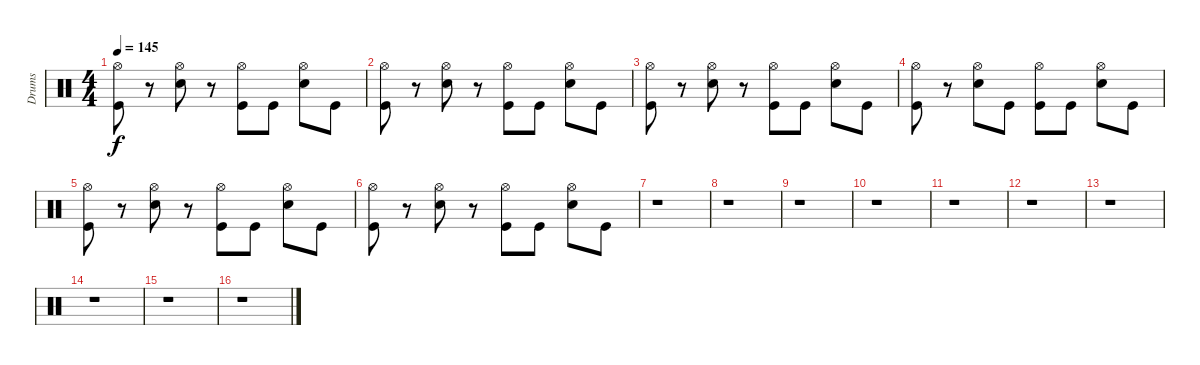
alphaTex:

\track ("Drums" "Drums") {instrument percussion}
\staff {score}
\articulation defaults
\ts (4 4)
\tempo 145
\clef neutral
\ks c
("Hi-Hat (open)" "Kick (hit)").8{dy f} r.8 ("Hi-Hat (open)" "Snare (hit) 2").8 r.8 ("Hi-Hat (open)" "Kick (hit)").8 "Kick (hit)".8 ("Hi-Hat (open)" "Snare (hit) 2").8 "Kick (hit)".8 |
("Hi-Hat (open)" "Kick (hit)").8 r.8 ("Hi-Hat (open)" "Snare (hit) 2").8 r.8 ("Hi-Hat (open)" "Kick (hit)").8 "Kick (hit)".8 ("Hi-Hat (open)" "Snare (hit) 2").8 "Kick (hit)".8 |
("Hi-Hat (open)" "Kick (hit)").8 r.8 ("Hi-Hat (open)" "Snare (hit) 2").8 r.8 ("Hi-Hat (open)" "Kick (hit)").8 "Kick (hit)".8 ("Hi-Hat (open)" "Snare (hit) 2").8 "Kick (hit)".8 |
("Hi-Hat (open)" "Kick (hit)").8 r.8 ("Hi-Hat (open)" "Snare (hit) 2").8 "Kick (hit)".8 ("Hi-Hat (open)" "Kick (hit)").8 "Kick (hit)".8 ("Hi-Hat (open)" "Snare (hit) 2").8 "Kick (hit)".8 |
("Hi-Hat (open)" "Kick (hit)").8 r.8 ("Hi-Hat (open)" "Snare (hit) 2").8 r.8 ("Hi-Hat (open)" "Kick (hit)").8 "Kick (hit)".8 ("Hi-Hat (open)" "Snare (hit) 2").8 "Kick (hit)".8 |
("Hi-Hat (open)" "Kick (hit)").8 r.8 ("Hi-Hat (open)" "Snare (hit) 2").8 r.8 ("Hi-Hat (open)" "Kick (hit)").8 "Kick (hit)".8 ("Hi-Hat (open)" "Snare (hit) 2").8 "Kick (hit)".8 |
r.1 |
r.1 |
r.1 |
r.1 |
r.1 |
r.1 |
r.1 |
r.1 |
r.1 |
r.1
